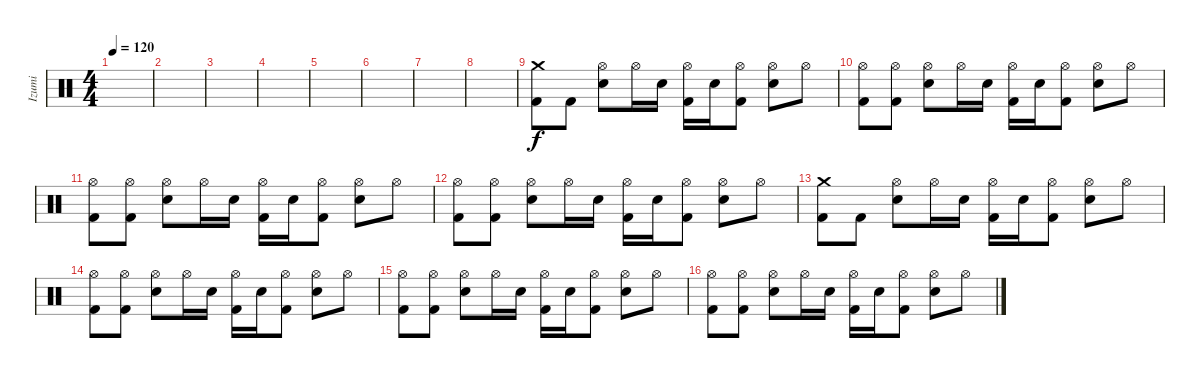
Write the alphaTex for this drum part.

\track ("Izumi" "Izumi") {instrument percussion}
\staff {score}
\articulation defaults
\ts (4 4)
\tempo 120
\clef neutral
\ks c
|
|
|
|
|
|
|
|
("Kick (hit) 2" "Crash medium (hit)").8 "Kick (hit) 2".8 ("Electric Snare (hit)" "Hi-Hat (open)").8 "Hi-Hat (open)".16 "Electric Snare (hit)".16 ("Kick (hit) 2" "Hi-Hat (open)").16 "Electric Snare (hit)".16 ("Kick (hit) 2" "Hi-Hat (open)").8 ("Electric Snare (hit)" "Hi-Hat (open)").8 "Hi-Hat (open)".8 |
("Kick (hit) 2" "Hi-Hat (open)").8 ("Kick (hit) 2" "Hi-Hat (open)").8 ("Electric Snare (hit)" "Hi-Hat (open)").8 "Hi-Hat (open)".16 "Electric Snare (hit)".16 ("Kick (hit) 2" "Hi-Hat (open)").16 "Electric Snare (hit)".16 ("Kick (hit) 2" "Hi-Hat (open)").8 ("Electric Snare (hit)" "Hi-Hat (open)").8 "Hi-Hat (open)".8 |
("Kick (hit) 2" "Hi-Hat (open)").8 ("Kick (hit) 2" "Hi-Hat (open)").8 ("Electric Snare (hit)" "Hi-Hat (open)").8 "Hi-Hat (open)".16 "Electric Snare (hit)".16 ("Kick (hit) 2" "Hi-Hat (open)").16 "Electric Snare (hit)".16 ("Kick (hit) 2" "Hi-Hat (open)").8 ("Electric Snare (hit)" "Hi-Hat (open)").8 "Hi-Hat (open)".8 |
("Kick (hit) 2" "Hi-Hat (open)").8 ("Kick (hit) 2" "Hi-Hat (open)").8 ("Electric Snare (hit)" "Hi-Hat (open)").8 "Hi-Hat (open)".16 "Electric Snare (hit)".16 ("Kick (hit) 2" "Hi-Hat (open)").16 "Electric Snare (hit)".16 ("Kick (hit) 2" "Hi-Hat (open)").8 ("Electric Snare (hit)" "Hi-Hat (open)").8 "Hi-Hat (open)".8 |
("Kick (hit) 2" "Crash medium (hit)").8 "Kick (hit) 2".8 ("Electric Snare (hit)" "Hi-Hat (open)").8 "Hi-Hat (open)".16 "Electric Snare (hit)".16 ("Kick (hit) 2" "Hi-Hat (open)").16 "Electric Snare (hit)".16 ("Kick (hit) 2" "Hi-Hat (open)").8 ("Electric Snare (hit)" "Hi-Hat (open)").8 "Hi-Hat (open)".8 |
("Kick (hit) 2" "Hi-Hat (open)").8 ("Kick (hit) 2" "Hi-Hat (open)").8 ("Electric Snare (hit)" "Hi-Hat (open)").8 "Hi-Hat (open)".16 "Electric Snare (hit)".16 ("Kick (hit) 2" "Hi-Hat (open)").16 "Electric Snare (hit)".16 ("Kick (hit) 2" "Hi-Hat (open)").8 ("Electric Snare (hit)" "Hi-Hat (open)").8 "Hi-Hat (open)".8 |
("Kick (hit) 2" "Hi-Hat (open)").8 ("Kick (hit) 2" "Hi-Hat (open)").8 ("Electric Snare (hit)" "Hi-Hat (open)").8 "Hi-Hat (open)".16 "Electric Snare (hit)".16 ("Kick (hit) 2" "Hi-Hat (open)").16 "Electric Snare (hit)".16 ("Kick (hit) 2" "Hi-Hat (open)").8 ("Electric Snare (hit)" "Hi-Hat (open)").8 "Hi-Hat (open)".8 |
("Kick (hit) 2" "Hi-Hat (open)").8 ("Kick (hit) 2" "Hi-Hat (open)").8 ("Electric Snare (hit)" "Hi-Hat (open)").8 "Hi-Hat (open)".16 "Electric Snare (hit)".16 ("Kick (hit) 2" "Hi-Hat (open)").16 "Electric Snare (hit)".16 ("Kick (hit) 2" "Hi-Hat (open)").8 ("Electric Snare (hit)" "Hi-Hat (open)").8 "Hi-Hat (open)".8
